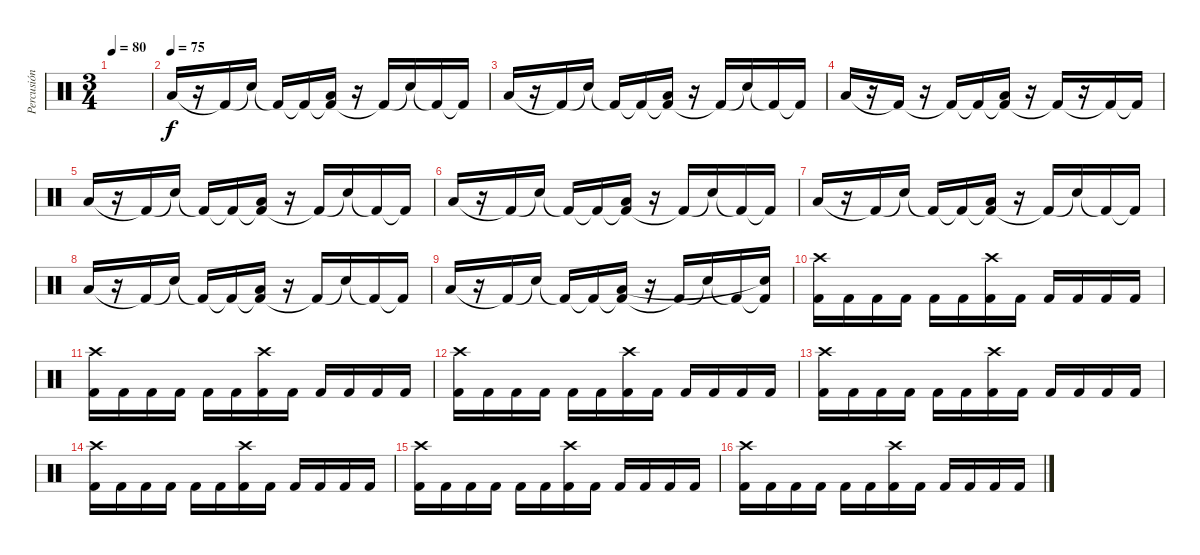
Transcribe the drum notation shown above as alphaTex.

\track ("Percusión" "Percusión") {instrument percussion}
\staff {score}
\articulation defaults
\ts (3 4)
\tempo 80
\clef neutral
\ks c
|
\tempo (75)
"Low Tom (hit)".16 r.16 "Kick (hit) 2"{t}.16 "Snare (hit)"{t}.16 "Kick (hit) 2"{t}.16 "Kick (hit) 2"{t}.16 ("Kick (hit) 2"{t} "Low Tom (hit)").16 r.16 "Kick (hit) 2"{t}.16 "Snare (hit)"{t}.16 "Kick (hit) 2"{t}.16 "Kick (hit) 2"{t}.16 |
"Low Tom (hit)".16 r.16 "Kick (hit) 2"{t}.16 "Snare (hit)"{t}.16 "Kick (hit) 2"{t}.16 "Kick (hit) 2"{t}.16 ("Kick (hit) 2"{t} "Low Tom (hit)").16 r.16 "Kick (hit) 2"{t}.16 "Snare (hit)"{t}.16 "Kick (hit) 2"{t}.16 "Kick (hit) 2"{t}.16 |
"Low Tom (hit)".16 r.16 "Kick (hit) 2"{t}.16 r.16 "Kick (hit) 2"{t}.16 "Kick (hit) 2"{t}.16 ("Kick (hit) 2"{t} "Low Tom (hit)").16 r.16 "Kick (hit) 2"{t}.16 r.16 "Kick (hit) 2"{t}.16 "Kick (hit) 2"{t}.16 |
"Low Tom (hit)".16 r.16 "Kick (hit) 2"{t}.16 "Snare (hit)"{t}.16 "Kick (hit) 2"{t}.16 "Kick (hit) 2"{t}.16 ("Kick (hit) 2"{t} "Low Tom (hit)").16 r.16 "Kick (hit) 2"{t}.16 "Snare (hit)"{t}.16 "Kick (hit) 2"{t}.16 "Kick (hit) 2"{t}.16 |
"Low Tom (hit)".16 r.16 "Kick (hit) 2"{t}.16 "Snare (hit)"{t}.16 "Kick (hit) 2"{t}.16 "Kick (hit) 2"{t}.16 ("Kick (hit) 2"{t} "Low Tom (hit)").16 r.16 "Kick (hit) 2"{t}.16 "Snare (hit)"{t}.16 "Kick (hit) 2"{t}.16 "Kick (hit) 2"{t}.16 |
"Low Tom (hit)".16 r.16 "Kick (hit) 2"{t}.16 "Snare (hit)"{t}.16 "Kick (hit) 2"{t}.16 "Kick (hit) 2"{t}.16 ("Kick (hit) 2"{t} "Low Tom (hit)").16 r.16 "Kick (hit) 2"{t}.16 "Snare (hit)"{t}.16 "Kick (hit) 2"{t}.16 "Kick (hit) 2"{t}.16 |
"Low Tom (hit)".16 r.16 "Kick (hit) 2"{t}.16 "Snare (hit)"{t}.16 "Kick (hit) 2"{t}.16 "Kick (hit) 2"{t}.16 ("Kick (hit) 2"{t} "Low Tom (hit)").16 r.16 "Kick (hit) 2"{t}.16 "Snare (hit)"{t}.16 "Kick (hit) 2"{t}.16 "Kick (hit) 2"{t}.16 |
"Low Tom (hit)".16 r.16 "Kick (hit) 2"{t}.16 "Snare (hit)"{t}.16 "Kick (hit) 2"{t}.16 "Kick (hit) 2"{t}.16 ("Kick (hit) 2"{t} "Low Tom (hit)").16 r.16 "Kick (hit) 2"{t}.16 "Snare (hit)"{t}.16 "Kick (hit) 2"{t}.16 ("Kick (hit) 2"{t} "Snare (hit)"{t}).16 |
("Crash high (hit)" "Kick (hit) 2").16 "Kick (hit) 2".16 "Kick (hit) 2".16 "Kick (hit) 2".16 "Kick (hit) 2".16 "Kick (hit) 2".16 ("Crash high (hit)" "Kick (hit) 2").16 "Kick (hit) 2".16 "Kick (hit) 2".16 "Kick (hit) 2".16 "Kick (hit) 2".16 "Kick (hit) 2".16 |
("Crash high (hit)" "Kick (hit) 2").16 "Kick (hit) 2".16 "Kick (hit) 2".16 "Kick (hit) 2".16 "Kick (hit) 2".16 "Kick (hit) 2".16 ("Crash high (hit)" "Kick (hit) 2").16 "Kick (hit) 2".16 "Kick (hit) 2".16 "Kick (hit) 2".16 "Kick (hit) 2".16 "Kick (hit) 2".16 |
("Crash high (hit)" "Kick (hit) 2").16 "Kick (hit) 2".16 "Kick (hit) 2".16 "Kick (hit) 2".16 "Kick (hit) 2".16 "Kick (hit) 2".16 ("Crash high (hit)" "Kick (hit) 2").16 "Kick (hit) 2".16 "Kick (hit) 2".16 "Kick (hit) 2".16 "Kick (hit) 2".16 "Kick (hit) 2".16 |
("Crash high (hit)" "Kick (hit) 2").16 "Kick (hit) 2".16 "Kick (hit) 2".16 "Kick (hit) 2".16 "Kick (hit) 2".16 "Kick (hit) 2".16 ("Crash high (hit)" "Kick (hit) 2").16 "Kick (hit) 2".16 "Kick (hit) 2".16 "Kick (hit) 2".16 "Kick (hit) 2".16 "Kick (hit) 2".16 |
("Crash high (hit)" "Kick (hit) 2").16 "Kick (hit) 2".16 "Kick (hit) 2".16 "Kick (hit) 2".16 "Kick (hit) 2".16 "Kick (hit) 2".16 ("Crash high (hit)" "Kick (hit) 2").16 "Kick (hit) 2".16 "Kick (hit) 2".16 "Kick (hit) 2".16 "Kick (hit) 2".16 "Kick (hit) 2".16 |
("Crash high (hit)" "Kick (hit) 2").16 "Kick (hit) 2".16 "Kick (hit) 2".16 "Kick (hit) 2".16 "Kick (hit) 2".16 "Kick (hit) 2".16 ("Crash high (hit)" "Kick (hit) 2").16 "Kick (hit) 2".16 "Kick (hit) 2".16 "Kick (hit) 2".16 "Kick (hit) 2".16 "Kick (hit) 2".16 |
("Crash high (hit)" "Kick (hit) 2").16 "Kick (hit) 2".16 "Kick (hit) 2".16 "Kick (hit) 2".16 "Kick (hit) 2".16 "Kick (hit) 2".16 ("Crash high (hit)" "Kick (hit) 2").16 "Kick (hit) 2".16 "Kick (hit) 2".16 "Kick (hit) 2".16 "Kick (hit) 2".16 "Kick (hit) 2".16
